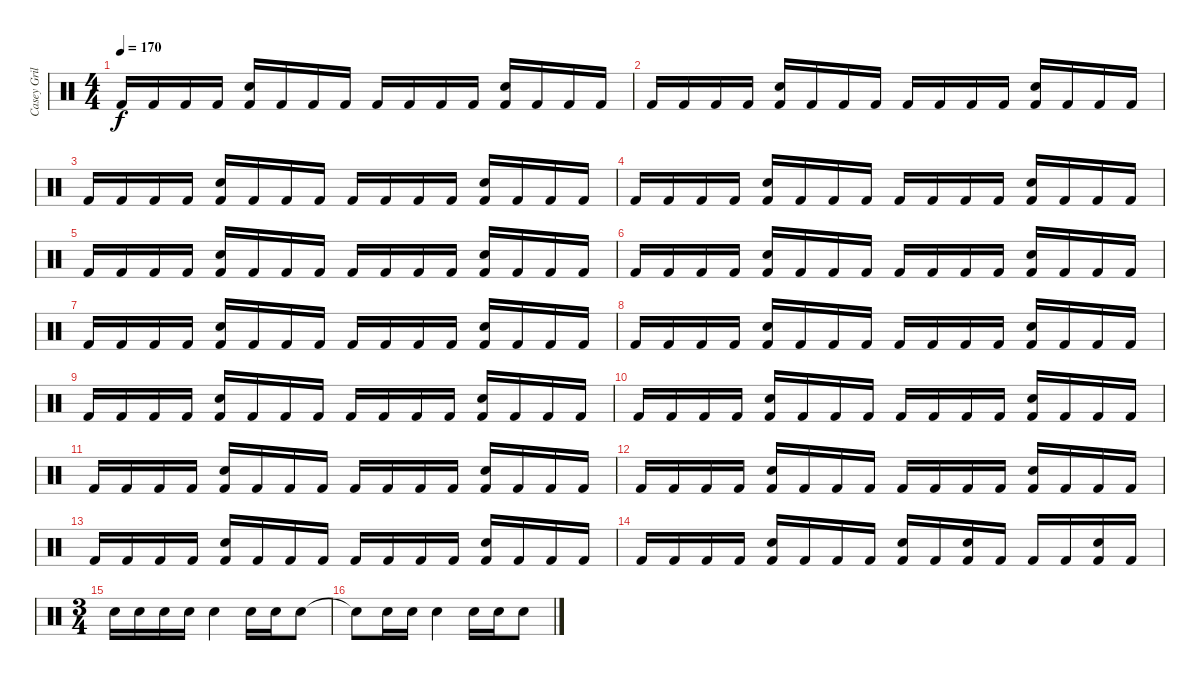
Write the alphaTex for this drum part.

\track ("Casey Grillo" "Casey Gril") {instrument percussion}
\staff {score}
\articulation defaults
\ts (4 4)
\tempo 170
\clef neutral
\ks c "Kick (hit) 2".16{dy f} "Kick (hit) 2".16 "Kick (hit) 2".16 "Kick (hit) 2".16
("Snare (hit) 2" "Kick (hit) 2").16 "Kick (hit) 2".16 "Kick (hit) 2".16 "Kick (hit) 2".16 "Kick (hit) 2".16 "Kick (hit) 2".16 "Kick (hit) 2".16 "Kick (hit) 2".16 ("Snare (hit) 2" "Kick (hit) 2").16 "Kick (hit) 2".16 "Kick (hit) 2".16 "Kick (hit) 2".16 |
"Kick (hit) 2".16 "Kick (hit) 2".16 "Kick (hit) 2".16 "Kick (hit) 2".16 ("Snare (hit) 2" "Kick (hit) 2").16 "Kick (hit) 2".16 "Kick (hit) 2".16 "Kick (hit) 2".16 "Kick (hit) 2".16 "Kick (hit) 2".16 "Kick (hit) 2".16 "Kick (hit) 2".16 ("Snare (hit) 2" "Kick (hit) 2").16 "Kick (hit) 2".16 "Kick (hit) 2".16 "Kick (hit) 2".16 |
"Kick (hit) 2".16 "Kick (hit) 2".16 "Kick (hit) 2".16 "Kick (hit) 2".16 ("Snare (hit) 2" "Kick (hit) 2").16 "Kick (hit) 2".16 "Kick (hit) 2".16 "Kick (hit) 2".16 "Kick (hit) 2".16 "Kick (hit) 2".16 "Kick (hit) 2".16 "Kick (hit) 2".16 ("Snare (hit) 2" "Kick (hit) 2").16 "Kick (hit) 2".16 "Kick (hit) 2".16 "Kick (hit) 2".16 |
"Kick (hit) 2".16 "Kick (hit) 2".16 "Kick (hit) 2".16 "Kick (hit) 2".16 ("Snare (hit) 2" "Kick (hit) 2").16 "Kick (hit) 2".16 "Kick (hit) 2".16 "Kick (hit) 2".16 "Kick (hit) 2".16 "Kick (hit) 2".16 "Kick (hit) 2".16 "Kick (hit) 2".16 ("Snare (hit) 2" "Kick (hit) 2").16 "Kick (hit) 2".16 "Kick (hit) 2".16 "Kick (hit) 2".16 |
"Kick (hit) 2".16 "Kick (hit) 2".16 "Kick (hit) 2".16 "Kick (hit) 2".16 ("Snare (hit) 2" "Kick (hit) 2").16 "Kick (hit) 2".16 "Kick (hit) 2".16 "Kick (hit) 2".16 "Kick (hit) 2".16 "Kick (hit) 2".16 "Kick (hit) 2".16 "Kick (hit) 2".16 ("Snare (hit) 2" "Kick (hit) 2").16 "Kick (hit) 2".16 "Kick (hit) 2".16 "Kick (hit) 2".16 |
"Kick (hit) 2".16 "Kick (hit) 2".16 "Kick (hit) 2".16 "Kick (hit) 2".16 ("Snare (hit) 2" "Kick (hit) 2").16 "Kick (hit) 2".16 "Kick (hit) 2".16 "Kick (hit) 2".16 "Kick (hit) 2".16 "Kick (hit) 2".16 "Kick (hit) 2".16 "Kick (hit) 2".16 ("Snare (hit) 2" "Kick (hit) 2").16 "Kick (hit) 2".16 "Kick (hit) 2".16 "Kick (hit) 2".16 |
"Kick (hit) 2".16 "Kick (hit) 2".16 "Kick (hit) 2".16 "Kick (hit) 2".16 ("Snare (hit) 2" "Kick (hit) 2").16 "Kick (hit) 2".16 "Kick (hit) 2".16 "Kick (hit) 2".16 "Kick (hit) 2".16 "Kick (hit) 2".16 "Kick (hit) 2".16 "Kick (hit) 2".16 ("Snare (hit) 2" "Kick (hit) 2").16 "Kick (hit) 2".16 "Kick (hit) 2".16 "Kick (hit) 2".16 |
"Kick (hit) 2".16 "Kick (hit) 2".16 "Kick (hit) 2".16 "Kick (hit) 2".16 ("Snare (hit) 2" "Kick (hit) 2").16 "Kick (hit) 2".16 "Kick (hit) 2".16 "Kick (hit) 2".16 "Kick (hit) 2".16 "Kick (hit) 2".16 "Kick (hit) 2".16 "Kick (hit) 2".16 ("Snare (hit) 2" "Kick (hit) 2").16 "Kick (hit) 2".16 "Kick (hit) 2".16 "Kick (hit) 2".16 |
"Kick (hit) 2".16 "Kick (hit) 2".16 "Kick (hit) 2".16 "Kick (hit) 2".16 ("Snare (hit) 2" "Kick (hit) 2").16 "Kick (hit) 2".16 "Kick (hit) 2".16 "Kick (hit) 2".16 "Kick (hit) 2".16 "Kick (hit) 2".16 "Kick (hit) 2".16 "Kick (hit) 2".16 ("Snare (hit) 2" "Kick (hit) 2").16 "Kick (hit) 2".16 "Kick (hit) 2".16 "Kick (hit) 2".16 |
"Kick (hit) 2".16 "Kick (hit) 2".16 "Kick (hit) 2".16 "Kick (hit) 2".16 ("Snare (hit) 2" "Kick (hit) 2").16 "Kick (hit) 2".16 "Kick (hit) 2".16 "Kick (hit) 2".16 "Kick (hit) 2".16 "Kick (hit) 2".16 "Kick (hit) 2".16 "Kick (hit) 2".16 ("Snare (hit) 2" "Kick (hit) 2").16 "Kick (hit) 2".16 "Kick (hit) 2".16 "Kick (hit) 2".16 |
"Kick (hit) 2".16 "Kick (hit) 2".16 "Kick (hit) 2".16 "Kick (hit) 2".16 ("Snare (hit) 2" "Kick (hit) 2").16 "Kick (hit) 2".16 "Kick (hit) 2".16 "Kick (hit) 2".16 "Kick (hit) 2".16 "Kick (hit) 2".16 "Kick (hit) 2".16 "Kick (hit) 2".16 ("Snare (hit) 2" "Kick (hit) 2").16 "Kick (hit) 2".16 "Kick (hit) 2".16 "Kick (hit) 2".16 |
"Kick (hit) 2".16 "Kick (hit) 2".16 "Kick (hit) 2".16 "Kick (hit) 2".16 ("Snare (hit) 2" "Kick (hit) 2").16 "Kick (hit) 2".16 "Kick (hit) 2".16 "Kick (hit) 2".16 "Kick (hit) 2".16 "Kick (hit) 2".16 "Kick (hit) 2".16 "Kick (hit) 2".16 ("Snare (hit) 2" "Kick (hit) 2").16 "Kick (hit) 2".16 "Kick (hit) 2".16 "Kick (hit) 2".16 |
"Kick (hit) 2".16 "Kick (hit) 2".16 "Kick (hit) 2".16 "Kick (hit) 2".16 ("Snare (hit) 2" "Kick (hit) 2").16 "Kick (hit) 2".16 "Kick (hit) 2".16 "Kick (hit) 2".16 "Kick (hit) 2".16 "Kick (hit) 2".16 "Kick (hit) 2".16 "Kick (hit) 2".16 ("Snare (hit) 2" "Kick (hit) 2").16 "Kick (hit) 2".16 "Kick (hit) 2".16 "Kick (hit) 2".16 |
"Kick (hit) 2".16 "Kick (hit) 2".16 "Kick (hit) 2".16 "Kick (hit) 2".16 ("Snare (hit) 2" "Kick (hit) 2").16 "Kick (hit) 2".16 "Kick (hit) 2".16 "Kick (hit) 2".16 ("Snare (hit) 2" "Kick (hit) 2").16 "Kick (hit) 2".16 ("Snare (hit) 2" "Kick (hit) 2").16 "Kick (hit) 2".16 "Kick (hit) 2".16 "Kick (hit) 2".16 ("Snare (hit) 2" "Kick (hit) 2").16 "Kick (hit) 2".16 |
\ts (3 4)
"Snare (hit) 2".16 "Snare (hit) 2".16 "Snare (hit) 2".16 "Snare (hit) 2".16 "Snare (hit) 2".4 "Snare (hit) 2".16 "Snare (hit) 2".16 "Snare (hit) 2".8 |
"Snare (hit)"{t}.8 "Snare (hit) 2".16 "Snare (hit) 2".16 "Snare (hit) 2".4 "Snare (hit) 2".16 "Snare (hit) 2".16 "Snare (hit) 2".8
